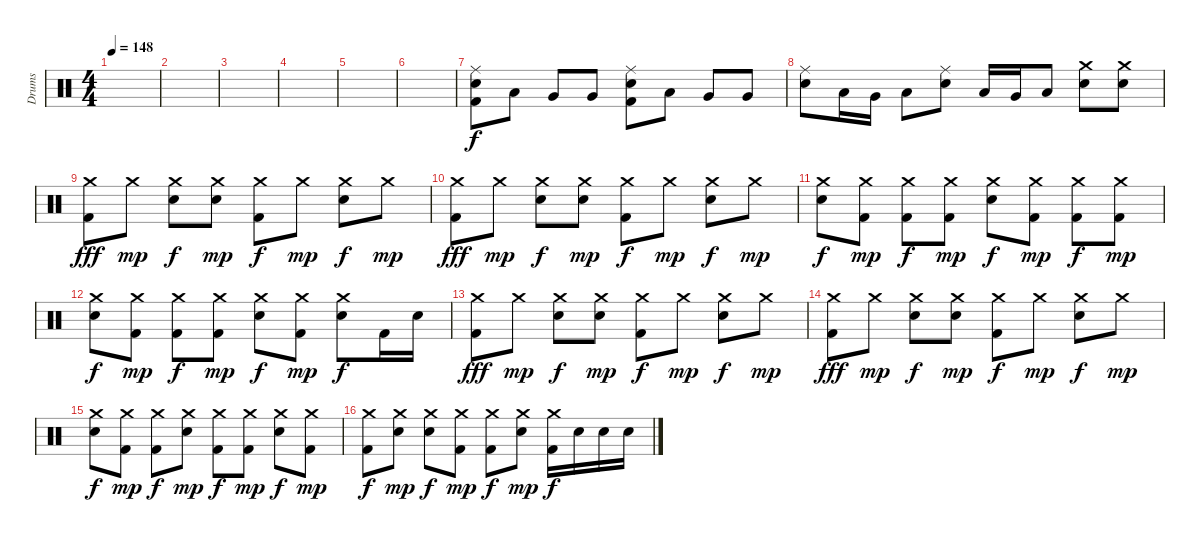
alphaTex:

\track ("Drums" "Drums") {instrument percussion}
\staff {score}
\articulation defaults
\ts (4 4)
\tempo 148
\clef neutral
\ks c
|
|
|
|
|
|
("Ride (middle)" "Snare (hit) 2" "Kick (hit) 2").8 "Low Tom (hit)".8 "Very Low Tom (hit)".8 "Very Low Tom (hit)".8 ("Ride (middle)" "Snare (hit) 2" "Kick (hit) 2").8 "Low Tom (hit)".8 "Very Low Tom (hit)".8 "Very Low Tom (hit)".8 |
("Ride (middle)" "Snare (hit) 2").8 "Low Tom (hit)".16 "Very Low Tom (hit)".16 "Low Floor Tom (hit)".8 ("Ride (middle)" "Snare (hit) 2").8 "Low Tom (hit)".16 "Very Low Tom (hit)".16 "Low Floor Tom (hit)".8 ("Crash medium (hit)" "Snare (hit) 2").8 ("Crash medium (hit)" "Snare (hit) 2").8 |
("Crash medium (hit)" "Kick (hit) 2").8{dy fff} "Crash medium (hit)".8{dy mp} ("Crash medium (hit)" "Snare (hit) 2").8{dy f} ("Crash medium (hit)" "Snare (hit) 2").8{dy mp} ("Crash medium (hit)" "Kick (hit) 2").8{dy f} "Crash medium (hit)".8{dy mp} ("Crash medium (hit)" "Snare (hit) 2").8{dy f} "Crash medium (hit)".8{dy mp} |
("Crash medium (hit)" "Kick (hit) 2").8{dy fff} "Crash medium (hit)".8{dy mp} ("Crash medium (hit)" "Snare (hit) 2").8{dy f} ("Crash medium (hit)" "Snare (hit) 2").8{dy mp} ("Crash medium (hit)" "Kick (hit) 2").8{dy f} "Crash medium (hit)".8{dy mp} ("Crash medium (hit)" "Snare (hit) 2").8{dy f} "Crash medium (hit)".8{dy mp} |
("Crash medium (hit)" "Snare (hit) 2").8{dy f} ("Crash medium (hit)" "Kick (hit) 2").8{dy mp} ("Crash medium (hit)" "Kick (hit) 2").8{dy f} ("Crash medium (hit)" "Kick (hit) 2").8{dy mp} ("Crash medium (hit)" "Snare (hit) 2").8{dy f} ("Crash medium (hit)" "Kick (hit) 2").8{dy mp} ("Crash medium (hit)" "Kick (hit) 2").8{dy f} ("Crash medium (hit)" "Kick (hit) 2").8{dy mp} |
("Crash medium (hit)" "Snare (hit) 2").8{dy f} ("Crash medium (hit)" "Kick (hit) 2").8{dy mp} ("Crash medium (hit)" "Kick (hit) 2").8{dy f} ("Crash medium (hit)" "Kick (hit) 2").8{dy mp} ("Crash medium (hit)" "Snare (hit) 2").8{dy f} ("Crash medium (hit)" "Kick (hit) 2").8{dy mp} ("Crash medium (hit)" "Snare (hit) 2").8{dy f} "Kick (hit) 2".16 "Snare (hit) 2".16 |
("Crash medium (hit)" "Kick (hit) 2").8{dy fff} "Crash medium (hit)".8{dy mp} ("Crash medium (hit)" "Snare (hit) 2").8{dy f} ("Crash medium (hit)" "Snare (hit) 2").8{dy mp} ("Crash medium (hit)" "Kick (hit) 2").8{dy f} "Crash medium (hit)".8{dy mp} ("Crash medium (hit)" "Snare (hit) 2").8{dy f} "Crash medium (hit)".8{dy mp} |
("Crash medium (hit)" "Kick (hit) 2").8{dy fff} "Crash medium (hit)".8{dy mp} ("Crash medium (hit)" "Snare (hit) 2").8{dy f} ("Crash medium (hit)" "Snare (hit) 2").8{dy mp} ("Crash medium (hit)" "Kick (hit) 2").8{dy f} "Crash medium (hit)".8{dy mp} ("Crash medium (hit)" "Snare (hit) 2").8{dy f} "Crash medium (hit)".8{dy mp} |
("Crash medium (hit)" "Snare (hit) 2").8{dy f} ("Crash medium (hit)" "Kick (hit) 2").8{dy mp} ("Crash medium (hit)" "Kick (hit) 2").8{dy f} ("Crash medium (hit)" "Snare (hit) 2").8{dy mp} ("Crash medium (hit)" "Kick (hit) 2").8{dy f} ("Crash medium (hit)" "Kick (hit) 2").8{dy mp} ("Crash medium (hit)" "Snare (hit) 2").8{dy f} ("Crash medium (hit)" "Kick (hit) 2").8{dy mp} |
("Crash medium (hit)" "Kick (hit) 2").8{dy f} ("Crash medium (hit)" "Snare (hit) 2").8{dy mp} ("Crash medium (hit)" "Snare (hit) 2").8{dy f} ("Crash medium (hit)" "Kick (hit) 2").8{dy mp} ("Crash medium (hit)" "Kick (hit) 2").8{dy f} ("Crash medium (hit)" "Snare (hit) 2").8{dy mp} ("Crash medium (hit)" "Kick (hit) 2").16{dy f} "Snare (hit) 2".16 "Snare (hit) 2".16 "Snare (hit) 2".16
